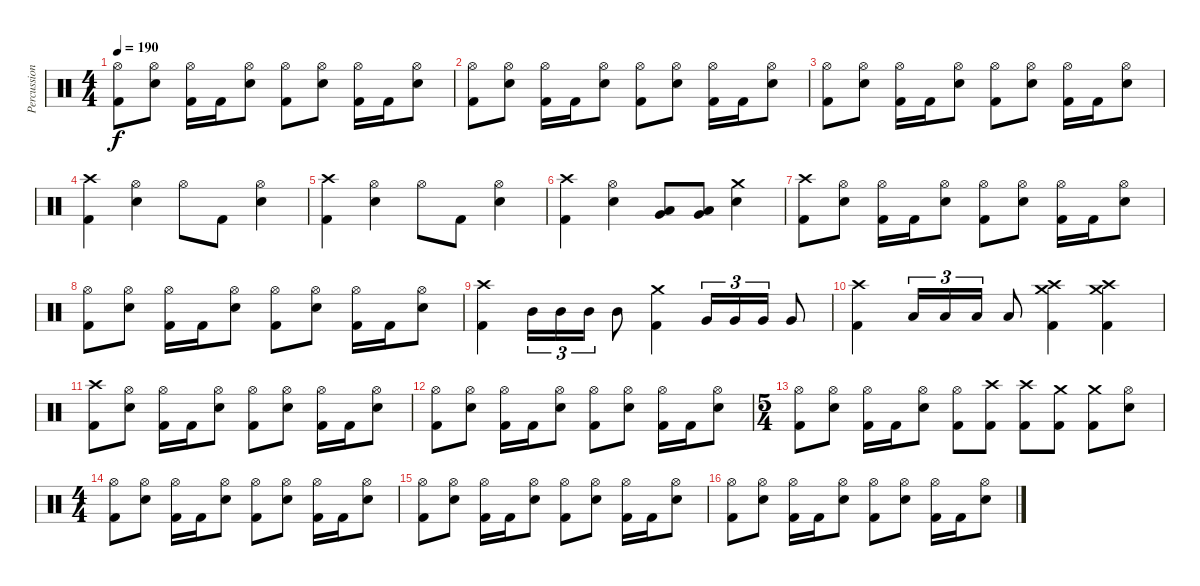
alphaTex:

\track ("Percussion" "Percussion") {instrument percussion}
\staff {score}
\articulation defaults
\ts (4 4)
\tempo 190
\clef neutral
\ks c
("Hi-Hat (open)" "Kick (hit) 2").8{dy f} ("Hi-Hat (open)" "Snare (hit) 2").8 ("Hi-Hat (open)" "Kick (hit) 2").16 "Kick (hit) 2".16 ("Hi-Hat (open)" "Snare (hit) 2").8 ("Hi-Hat (open)" "Kick (hit) 2").8 ("Hi-Hat (open)" "Snare (hit) 2").8 ("Hi-Hat (open)" "Kick (hit) 2").16 "Kick (hit) 2".16 ("Hi-Hat (open)" "Snare (hit) 2").8 |
("Hi-Hat (open)" "Kick (hit) 2").8 ("Hi-Hat (open)" "Snare (hit) 2").8 ("Hi-Hat (open)" "Kick (hit) 2").16 "Kick (hit) 2".16 ("Hi-Hat (open)" "Snare (hit) 2").8 ("Hi-Hat (open)" "Kick (hit) 2").8 ("Hi-Hat (open)" "Snare (hit) 2").8 ("Hi-Hat (open)" "Kick (hit) 2").16 "Kick (hit) 2".16 ("Hi-Hat (open)" "Snare (hit) 2").8 |
("Hi-Hat (open)" "Kick (hit) 2").8 ("Hi-Hat (open)" "Snare (hit) 2").8 ("Hi-Hat (open)" "Kick (hit) 2").16 "Kick (hit) 2".16 ("Hi-Hat (open)" "Snare (hit) 2").8 ("Hi-Hat (open)" "Kick (hit) 2").8 ("Hi-Hat (open)" "Snare (hit) 2").8 ("Hi-Hat (open)" "Kick (hit) 2").16 "Kick (hit) 2".16 ("Hi-Hat (open)" "Snare (hit) 2").8 |
("Crash high (hit)" "Kick (hit) 2").4 ("Hi-Hat (open)" "Snare (hit) 2").4 "Hi-Hat (open)".8 "Kick (hit) 2".8 ("Hi-Hat (open)" "Snare (hit) 2").4 |
("Crash high (hit)" "Kick (hit) 2").4 ("Hi-Hat (open)" "Snare (hit) 2").4 "Hi-Hat (open)".8 "Kick (hit) 2".8 ("Hi-Hat (open)" "Snare (hit) 2").4 |
("Crash high (hit)" "Kick (hit) 2").4 ("Hi-Hat (open)" "Snare (hit) 2").4 ("Low Tom (hit)" "Very Low Tom (hit)").8 ("Low Tom (hit)" "Very Low Tom (hit)").8 ("Crash medium (hit)" "Snare (hit) 2").4 |
("Crash high (hit)" "Kick (hit) 2").8 ("Hi-Hat (open)" "Snare (hit) 2").8 ("Hi-Hat (open)" "Kick (hit) 2").16 "Kick (hit) 2".16 ("Hi-Hat (open)" "Snare (hit) 2").8 ("Hi-Hat (open)" "Kick (hit) 2").8 ("Hi-Hat (open)" "Snare (hit) 2").8 ("Hi-Hat (open)" "Kick (hit) 2").16 "Kick (hit) 2".16 ("Hi-Hat (open)" "Snare (hit) 2").8 |
("Hi-Hat (open)" "Kick (hit) 2").8 ("Hi-Hat (open)" "Snare (hit) 2").8 ("Hi-Hat (open)" "Kick (hit) 2").16 "Kick (hit) 2".16 ("Hi-Hat (open)" "Snare (hit) 2").8 ("Hi-Hat (open)" "Kick (hit) 2").8 ("Hi-Hat (open)" "Snare (hit) 2").8 ("Hi-Hat (open)" "Kick (hit) 2").16 "Kick (hit) 2".16 ("Hi-Hat (open)" "Snare (hit) 2").8 |
("Crash high (hit)" "Kick (hit) 2").4 "Mid Tom (hit)".16{tu (3 2)} "Mid Tom (hit)".16{tu (3 2)} "Mid Tom (hit)".16{tu (3 2)} "Mid Tom (hit)".8 ("Crash medium (hit)" "Kick (hit) 2").4 "Very Low Tom (hit)".16{tu (3 2)} "Very Low Tom (hit)".16{tu (3 2)} "Very Low Tom (hit)".16{tu (3 2)} "Very Low Tom (hit)".8 |
("Crash high (hit)" "Kick (hit) 2").4 "Low Floor Tom (hit)".16{tu (3 2)} "Low Floor Tom (hit)".16{tu (3 2)} "Low Floor Tom (hit)".16{tu (3 2)} "Low Floor Tom (hit)".8 ("Crash medium (hit)" "Crash high (hit)" "Kick (hit) 2").4 ("Crash medium (hit)" "Crash high (hit)" "Kick (hit) 2").4 |
("Crash high (hit)" "Kick (hit) 2").8 ("Hi-Hat (open)" "Snare (hit) 2").8 ("Hi-Hat (open)" "Kick (hit) 2").16 "Kick (hit) 2".16 ("Hi-Hat (open)" "Snare (hit) 2").8 ("Hi-Hat (open)" "Kick (hit) 2").8 ("Hi-Hat (open)" "Snare (hit) 2").8 ("Hi-Hat (open)" "Kick (hit) 2").16 "Kick (hit) 2".16 ("Hi-Hat (open)" "Snare (hit) 2").8 |
("Hi-Hat (open)" "Kick (hit) 2").8 ("Hi-Hat (open)" "Snare (hit) 2").8 ("Hi-Hat (open)" "Kick (hit) 2").16 "Kick (hit) 2".16 ("Hi-Hat (open)" "Snare (hit) 2").8 ("Hi-Hat (open)" "Kick (hit) 2").8 ("Hi-Hat (open)" "Snare (hit) 2").8 ("Hi-Hat (open)" "Kick (hit) 2").16 "Kick (hit) 2".16 ("Hi-Hat (open)" "Snare (hit) 2").8 |
\ts (5 4)
("Hi-Hat (open)" "Kick (hit) 2").8 ("Hi-Hat (open)" "Snare (hit) 2").8 ("Hi-Hat (open)" "Kick (hit) 2").16 "Kick (hit) 2".16 ("Hi-Hat (open)" "Snare (hit) 2").8 ("Hi-Hat (open)" "Kick (hit) 2").8 ("Crash high (hit)" "Kick (hit) 2").8 ("Crash high (hit)" "Kick (hit) 2").8 ("Crash medium (hit)" "Kick (hit) 2").8 ("Crash medium (hit)" "Kick (hit) 2").8 ("Hi-Hat (open)" "Snare (hit) 2").8 |
\ts (4 4)
("Hi-Hat (open)" "Kick (hit) 2").8 ("Hi-Hat (open)" "Snare (hit) 2").8 ("Hi-Hat (open)" "Kick (hit) 2").16 "Kick (hit) 2".16 ("Hi-Hat (open)" "Snare (hit) 2").8 ("Hi-Hat (open)" "Kick (hit) 2").8 ("Hi-Hat (open)" "Snare (hit) 2").8 ("Hi-Hat (open)" "Kick (hit) 2").16 "Kick (hit) 2".16 ("Hi-Hat (open)" "Snare (hit) 2").8 |
("Hi-Hat (open)" "Kick (hit) 2").8 ("Hi-Hat (open)" "Snare (hit) 2").8 ("Hi-Hat (open)" "Kick (hit) 2").16 "Kick (hit) 2".16 ("Hi-Hat (open)" "Snare (hit) 2").8 ("Hi-Hat (open)" "Kick (hit) 2").8 ("Hi-Hat (open)" "Snare (hit) 2").8 ("Hi-Hat (open)" "Kick (hit) 2").16 "Kick (hit) 2".16 ("Hi-Hat (open)" "Snare (hit) 2").8 |
("Hi-Hat (open)" "Kick (hit) 2").8 ("Hi-Hat (open)" "Snare (hit) 2").8 ("Hi-Hat (open)" "Kick (hit) 2").16 "Kick (hit) 2".16 ("Hi-Hat (open)" "Snare (hit) 2").8 ("Hi-Hat (open)" "Kick (hit) 2").8 ("Hi-Hat (open)" "Snare (hit) 2").8 ("Hi-Hat (open)" "Kick (hit) 2").16 "Kick (hit) 2".16 ("Hi-Hat (open)" "Snare (hit) 2").8
